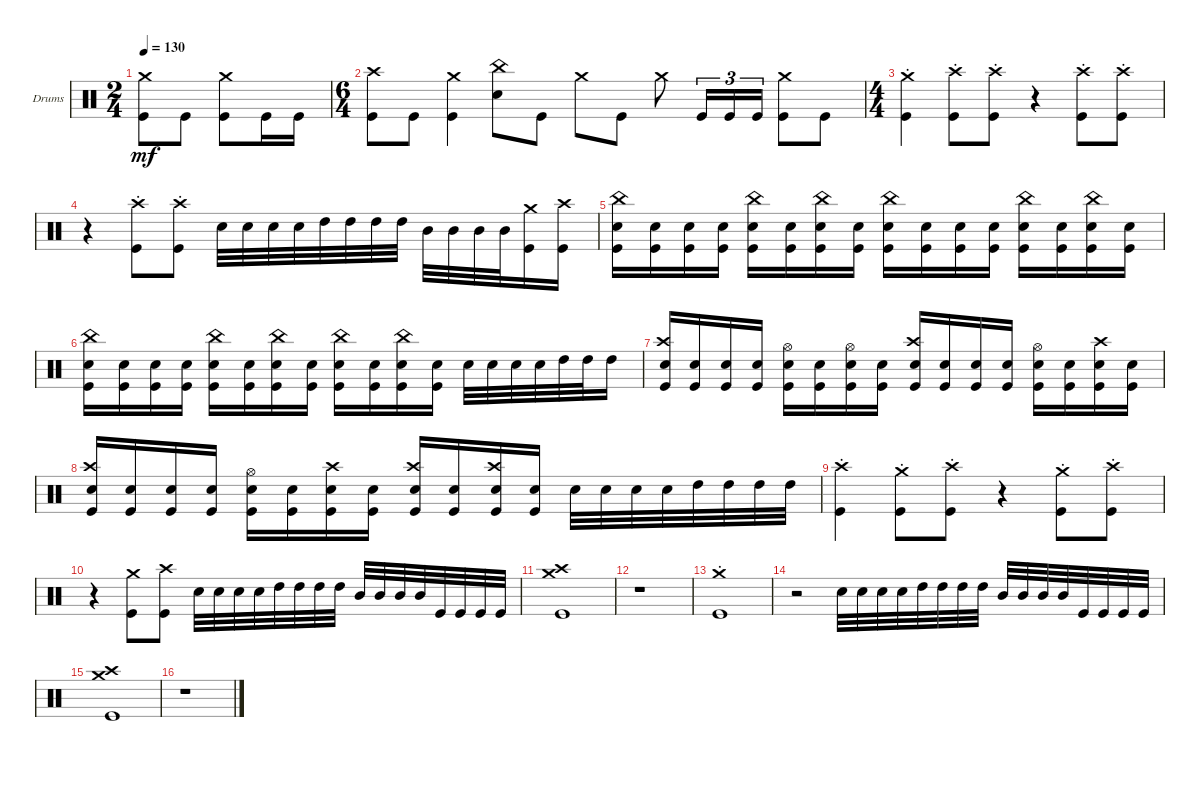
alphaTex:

\defaultSystemsLayout 4
\bracketExtendMode groupsimilarinstruments
\firstSystemTrackNameOrientation horizontal
\otherSystemsTrackNameOrientation horizontal
\track ("Drumkit" "Drums") {instrument percussion}
\staff {score}
\articulation defaults
\ts (2 4)
\tempo 130
\clef neutral
\ks c
("Kick (hit)" "Crash medium (hit)").8{dy mf} "Kick (hit)".8 ("Kick (hit)" "Crash medium (hit)").8 "Kick (hit)".16 "Kick (hit)".16 |
\ts (6 4)
("Crash high (hit)" "Kick (hit)").8 "Kick (hit)".8 ("Kick (hit)" "Crash medium (hit)").4 ("Snare (hit) 2" "China (hit)").8 "Kick (hit)".8 "Crash medium (hit)".8 "Kick (hit)".8 "Crash medium (hit)".8 "Kick (hit)".16{tu (3 2)} "Kick (hit)".16{tu (3 2)} "Kick (hit)".16{tu (3 2)} ("Crash medium (hit)" "Kick (hit)").8 "Kick (hit)".8 |
\ts (4 4)
("Crash medium (hit)"{st} "Kick (hit)").4 ("Crash high (hit)"{st} "Kick (hit)").8 ("Crash high (hit)"{st} "Kick (hit)").8 r.4 ("Crash high (hit)"{st} "Kick (hit)").8 ("Crash high (hit)"{st} "Kick (hit)").8 |
r.4 ("Crash high (hit)"{st} "Kick (hit)").8 ("Crash high (hit)"{st} "Kick (hit)").8 "Snare (hit) 2".32 "Snare (hit) 2".32 "Snare (hit) 2".32 "Snare (hit) 2".32 "High Tom (hit)".32 "High Tom (hit)".32 "High Tom (hit)".32 "High Tom (hit)".32 "Mid Tom (hit)".32 "Mid Tom (hit)".32 "Mid Tom (hit)".32 "Mid Tom (hit)".32 ("Kick (hit)" "Crash medium (hit)").16 ("Kick (hit)" "Crash high (hit)").16 |
("Snare (hit) 2" "Kick (hit)" "China (hit)").16 ("Kick (hit)" "Snare (hit) 2").16 ("Kick (hit)" "Snare (hit) 2").16 ("Kick (hit)" "Snare (hit) 2").16 ("Snare (hit) 2" "Kick (hit)" "China (hit)").16 ("Kick (hit)" "Snare (hit) 2").16 ("Kick (hit)" "Snare (hit) 2" "China (hit)").16 ("Kick (hit)" "Snare (hit) 2").16 ("Snare (hit) 2" "Kick (hit)" "China (hit)").16 ("Kick (hit)" "Snare (hit) 2").16 ("Kick (hit)" "Snare (hit) 2").16 ("Kick (hit)" "Snare (hit) 2").16 ("Snare (hit) 2" "Kick (hit)" "China (hit)").16 ("Kick (hit)" "Snare (hit) 2").16 ("Kick (hit)" "Snare (hit) 2" "China (hit)").16 ("Kick (hit)" "Snare (hit) 2").16 |
("Snare (hit) 2" "Kick (hit)" "China (hit)").16 ("Kick (hit)" "Snare (hit) 2").16 ("Kick (hit)" "Snare (hit) 2").16 ("Kick (hit)" "Snare (hit) 2").16 ("Snare (hit) 2" "Kick (hit)" "China (hit)").16 ("Kick (hit)" "Snare (hit) 2").16 ("Kick (hit)" "Snare (hit) 2" "China (hit)").16 ("Kick (hit)" "Snare (hit) 2").16 ("Snare (hit) 2" "Kick (hit)" "China (hit)").16 ("Kick (hit)" "Snare (hit) 2").16 ("Kick (hit)" "Snare (hit) 2" "China (hit)").16 ("Kick (hit)" "Snare (hit) 2").16 "Snare (hit) 2".32 "Snare (hit) 2".32 "Snare (hit) 2".32 "Snare (hit) 2".32 "High Tom (hit)".32 "High Tom (hit)".32 "High Tom (hit)".16 |
("Snare (hit) 2" "Kick (hit)" "Crash high (hit)").16 ("Snare (hit) 2" "Kick (hit)").16 ("Snare (hit) 2" "Kick (hit)").16 ("Snare (hit) 2" "Kick (hit)").16 ("Snare (hit) 2" "Kick (hit)" "Hi-Hat (open)").16 ("Snare (hit) 2" "Kick (hit)").16 ("Snare (hit) 2" "Kick (hit)" "Hi-Hat (open)").16 ("Snare (hit) 2" "Kick (hit)").16 ("Snare (hit) 2" "Kick (hit)" "Crash high (hit)").16 ("Snare (hit) 2" "Kick (hit)").16 ("Snare (hit) 2" "Kick (hit)").16 ("Snare (hit) 2" "Kick (hit)").16 ("Snare (hit) 2" "Kick (hit)" "Hi-Hat (open)").16 ("Snare (hit) 2" "Kick (hit)").16 ("Snare (hit) 2" "Kick (hit)" "Crash high (hit)").16 ("Snare (hit) 2" "Kick (hit)").16 |
("Snare (hit) 2" "Kick (hit)" "Crash high (hit)").16 ("Snare (hit) 2" "Kick (hit)").16 ("Snare (hit) 2" "Kick (hit)").16 ("Snare (hit) 2" "Kick (hit)").16 ("Snare (hit) 2" "Kick (hit)" "Hi-Hat (open)").16 ("Snare (hit) 2" "Kick (hit)").16 ("Snare (hit) 2" "Kick (hit)" "Crash high (hit)").16 ("Snare (hit) 2" "Kick (hit)").16 ("Snare (hit) 2" "Kick (hit)" "Crash high (hit)").16 ("Snare (hit) 2" "Kick (hit)").16 ("Snare (hit) 2" "Kick (hit)" "Crash high (hit)").16 ("Snare (hit) 2" "Kick (hit)").16 "Snare (hit) 2".32 "Snare (hit) 2".32 "Snare (hit) 2".32 "Snare (hit) 2".32 "High Tom (hit)".32 "High Tom (hit)".32 "High Tom (hit)".32 "High Tom (hit)".32 |
("Kick (hit)" "Crash high (hit)"{st}).4 ("Crash medium (hit)"{st} "Kick (hit)").8 ("Crash high (hit)"{st} "Kick (hit)").8 r.4 ("Crash medium (hit)"{st} "Kick (hit)").8 ("Crash high (hit)"{st} "Kick (hit)").8 |
r.4 ("Crash medium (hit)" "Kick (hit)").8 ("Crash high (hit)" "Kick (hit)").8 "Snare (hit) 2".32 "Snare (hit) 2".32 "Snare (hit) 2".32 "Snare (hit) 2".32 "High Tom (hit)".32 "High Tom (hit)".32 "High Tom (hit)".32 "High Tom (hit)".32 "Mid Tom (hit)".32 "Mid Tom (hit)".32 "Mid Tom (hit)".32 "Mid Tom (hit)".32 "Kick (hit)".32 "Kick (hit)".32 "Kick (hit)".32 "Kick (hit)".32 |
("Kick (hit)" "Crash high (hit)" "Crash medium (hit)").1 |
r.1 |
("Crash medium (hit)"{st} "Kick (hit)").1 |
r.2 "Snare (hit) 2".32 "Snare (hit) 2".32 "Snare (hit) 2".32 "Snare (hit) 2".32 "High Tom (hit)".32 "High Tom (hit)".32 "High Tom (hit)".32 "High Tom (hit)".32 "Mid Tom (hit)".32 "Mid Tom (hit)".32 "Mid Tom (hit)".32 "Mid Tom (hit)".32 "Kick (hit)".32 "Kick (hit)".32 "Kick (hit)".32 "Kick (hit)".32 |
("Kick (hit)" "Crash high (hit)" "Crash medium (hit)").1 |
r.1
